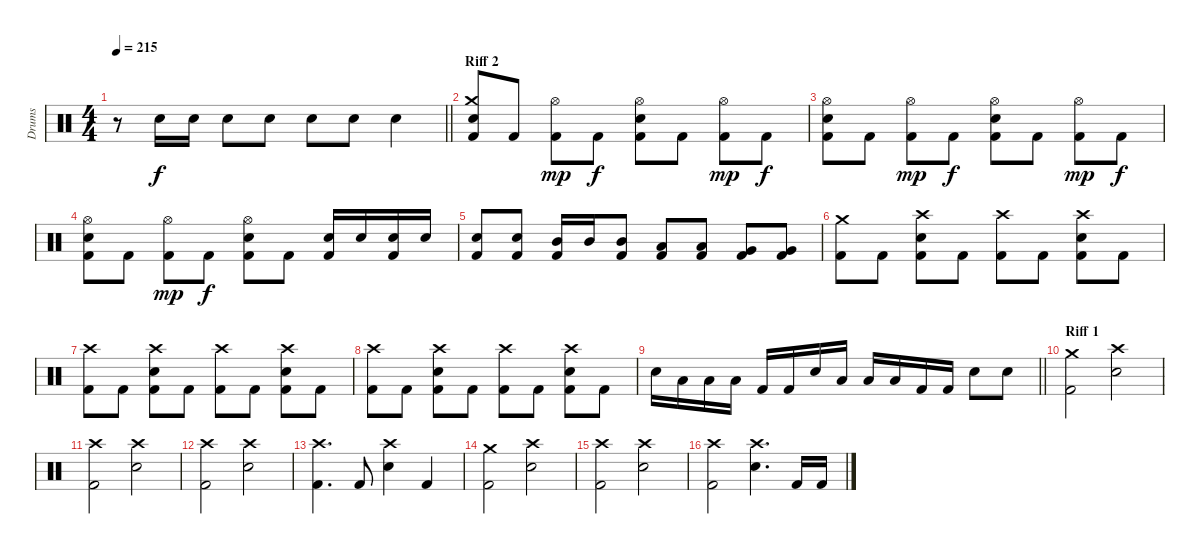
\track ("Drums" "Drums") {instrument percussion}
\staff {score}
\articulation defaults
\ts (4 4)
\tempo 215
\clef neutral
\barLineRight lightlight
\ks c
r.8{dy f} "Electric Snare (hit)".16 "Electric Snare (hit)".16 "Electric Snare (hit)".8 "Electric Snare (hit)".8 "Electric Snare (hit)".8 "Electric Snare (hit)".8 "Electric Snare (hit)".4 |
\section ("" "Riff 2")
("Crash medium (hit)" "Kick (hit) 2" "Electric Snare (hit)").8 "Kick (hit) 2".8 ("Hi-Hat (open)" "Kick (hit) 2").8{dy mp} "Kick (hit) 2".8{dy f} ("Hi-Hat (open)" "Kick (hit) 2" "Electric Snare (hit)").8 "Kick (hit) 2".8 ("Hi-Hat (open)" "Kick (hit) 2").8{dy mp} "Kick (hit) 2".8{dy f} |
("Hi-Hat (open)" "Kick (hit) 2" "Electric Snare (hit)").8 "Kick (hit) 2".8 ("Hi-Hat (open)" "Kick (hit) 2").8{dy mp} "Kick (hit) 2".8{dy f} ("Hi-Hat (open)" "Kick (hit) 2" "Electric Snare (hit)").8 "Kick (hit) 2".8 ("Hi-Hat (open)" "Kick (hit) 2").8{dy mp} "Kick (hit) 2".8{dy f} |
("Hi-Hat (open)" "Kick (hit) 2" "Electric Snare (hit)").8 "Kick (hit) 2".8 ("Hi-Hat (open)" "Kick (hit) 2").8{dy mp} "Kick (hit) 2".8{dy f} ("Hi-Hat (open)" "Kick (hit) 2" "Electric Snare (hit)").8 "Kick (hit) 2".8 ("Electric Snare (hit)" "Kick (hit) 2").16 "Electric Snare (hit)".16 ("Electric Snare (hit)" "Kick (hit) 2").16 "Electric Snare (hit)".16 |
("Electric Snare (hit)" "Kick (hit) 2").8 ("Electric Snare (hit)" "Kick (hit) 2").8 ("Mid Tom (hit)" "Kick (hit) 2").16 "Mid Tom (hit)".16 ("Mid Tom (hit)" "Kick (hit) 2").8 ("Low Tom (hit)" "Kick (hit) 2").8 ("Low Tom (hit)" "Kick (hit) 2").8 ("Very Low Tom (hit)" "Kick (hit) 2").8 ("Very Low Tom (hit)" "Kick (hit) 2").8 |
("Crash medium (hit)" "Kick (hit) 2").8 "Kick (hit) 2".8 ("Electric Snare (hit)" "Crash high (hit)" "Kick (hit) 2").8 "Kick (hit) 2".8 ("Crash high (hit)" "Kick (hit) 2").8 "Kick (hit) 2".8 ("Electric Snare (hit)" "Crash high (hit)" "Kick (hit) 2").8 "Kick (hit) 2".8 |
("Crash high (hit)" "Kick (hit) 2").8 "Kick (hit) 2".8 ("Electric Snare (hit)" "Crash high (hit)" "Kick (hit) 2").8 "Kick (hit) 2".8 ("Crash high (hit)" "Kick (hit) 2").8 "Kick (hit) 2".8 ("Electric Snare (hit)" "Crash high (hit)" "Kick (hit) 2").8 "Kick (hit) 2".8 |
("Crash high (hit)" "Kick (hit) 2").8 "Kick (hit) 2".8 ("Electric Snare (hit)" "Crash high (hit)" "Kick (hit) 2").8 "Kick (hit) 2".8 ("Crash high (hit)" "Kick (hit) 2").8 "Kick (hit) 2".8 ("Electric Snare (hit)" "Crash high (hit)" "Kick (hit) 2").8 "Kick (hit) 2".8 |
\barLineRight lightlight "Electric Snare (hit)".16 "Low Floor Tom (hit)".16 "Low Tom (hit)".16 "Low Floor Tom (hit)".16 "Kick (hit) 2".16 "Kick (hit) 2".16 "Electric Snare (hit)".16 "Low Floor Tom (hit)".16 "Low Tom (hit)".16 "Low Floor Tom (hit)".16 "Kick (hit) 2".16 "Kick (hit) 2".16 "Electric Snare (hit)".8 "Electric Snare (hit)".8
|
\section ("" "Riff 1")
("Kick (hit) 2" "Crash medium (hit)").2 ("Electric Snare (hit)" "Crash high (hit)").2 |
("Kick (hit) 2" "Crash high (hit)").2 ("Electric Snare (hit)" "Crash high (hit)").2 |
("Kick (hit) 2" "Crash high (hit)").2 ("Electric Snare (hit)" "Crash high (hit)").2 |
("Kick (hit) 2" "Crash high (hit)").4{d} "Kick (hit) 2".8 ("Electric Snare (hit)" "Crash high (hit)").4 "Kick (hit) 2".4 |
("Kick (hit) 2" "Crash medium (hit)").2 ("Electric Snare (hit)" "Crash high (hit)").2 |
("Kick (hit) 2" "Crash high (hit)").2 ("Electric Snare (hit)" "Crash high (hit)").2 |
("Kick (hit) 2" "Crash high (hit)").2 ("Electric Snare (hit)" "Crash high (hit)").4{d} "Kick (hit) 2".16 "Kick (hit) 2".16
